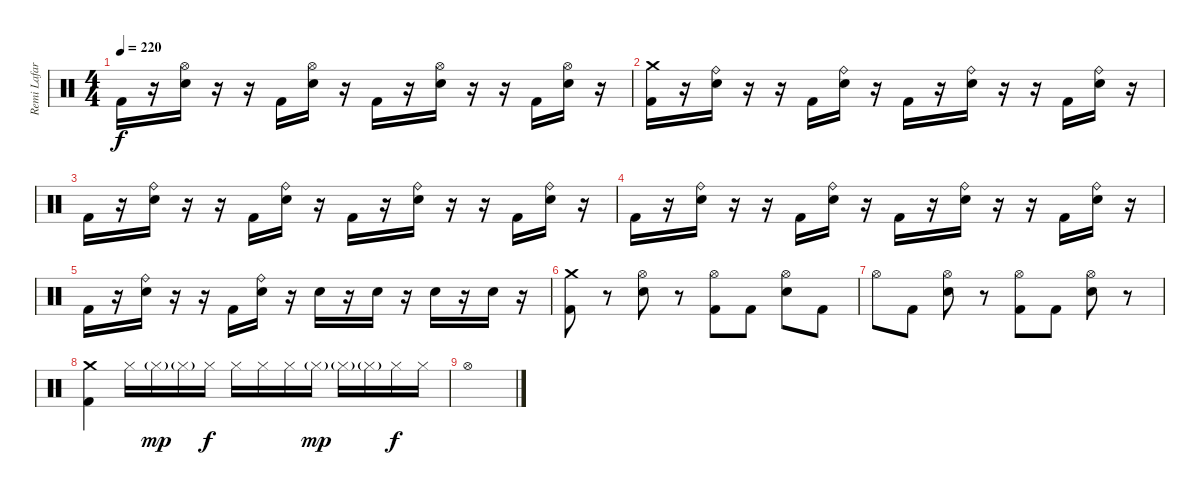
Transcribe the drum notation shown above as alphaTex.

\track ("Remi Lafargue " "Remi Lafar") {instrument percussion}
\staff {score}
\articulation defaults
\ts (4 4)
\tempo 220
\clef neutral
\ks c "Kick (hit) 2".16{dy f}
r.16 ("Hi-Hat (open)" "Snare (hit) 2").16 r.16 r.16 "Kick (hit) 2".16 ("Hi-Hat (open)" "Snare (hit) 2").16 r.16 "Kick (hit) 2".16 r.16 ("Hi-Hat (open)" "Snare (hit) 2").16 r.16 r.16 "Kick (hit) 2".16 ("Hi-Hat (open)" "Snare (hit) 2").16 r.16 |
("Crash medium (hit)" "Kick (hit) 2").16 r.16 ("Ride (bell)" "Snare (hit) 2").16 r.16 r.16 "Kick (hit) 2".16 ("Ride (bell)" "Snare (hit) 2").16 r.16 "Kick (hit) 2".16 r.16 ("Ride (bell)" "Snare (hit) 2").16 r.16 r.16 "Kick (hit) 2".16 ("Ride (bell)" "Snare (hit) 2").16 r.16 |
"Kick (hit) 2".16 r.16 ("Ride (bell)" "Snare (hit) 2").16 r.16 r.16 "Kick (hit) 2".16 ("Ride (bell)" "Snare (hit) 2").16 r.16 "Kick (hit) 2".16 r.16 ("Ride (bell)" "Snare (hit) 2").16 r.16 r.16 "Kick (hit) 2".16 ("Ride (bell)" "Snare (hit) 2").16 r.16 |
"Kick (hit) 2".16 r.16 ("Ride (bell)" "Snare (hit) 2").16 r.16 r.16 "Kick (hit) 2".16 ("Ride (bell)" "Snare (hit) 2").16 r.16 "Kick (hit) 2".16 r.16 ("Ride (bell)" "Snare (hit) 2").16 r.16 r.16 "Kick (hit) 2".16 ("Ride (bell)" "Snare (hit) 2").16 r.16 |
"Kick (hit) 2".16 r.16 ("Ride (bell)" "Snare (hit) 2").16 r.16 r.16 "Kick (hit) 2".16 ("Ride (bell)" "Snare (hit) 2").16 r.16 "Snare (hit) 2".16 r.16 "Snare (hit) 2".16 r.16 "Snare (hit) 2".16 r.16 "Snare (hit) 2".16 r.16 |
("Crash medium (hit)" "Kick (hit) 2").8 r.8 ("Hi-Hat (open)" "Snare (hit) 2").8 r.8 ("Hi-Hat (open)" "Kick (hit) 2").8 "Kick (hit) 2".8 ("Hi-Hat (open)" "Snare (hit) 2").8 "Kick (hit) 2".8 |
"Hi-Hat (open)".8 "Kick (hit) 2".8 ("Hi-Hat (open)" "Snare (hit) 2").8 r.8 ("Hi-Hat (open)" "Kick (hit) 2").8 "Kick (hit) 2".8 ("Hi-Hat (open)" "Snare (hit) 2").8 r.8 |
("Crash medium (hit)" "Kick (hit) 2").4 "Hi-Hat (closed)".16 "Hi-Hat (closed)"{g}.16{dy mp} "Hi-Hat (closed)"{g}.16 "Hi-Hat (closed)".16{dy f} "Hi-Hat (closed)".16 "Hi-Hat (closed)".16 "Hi-Hat (closed)".16 "Hi-Hat (closed)"{g}.16{dy mp} "Hi-Hat (closed)"{g}.16 "Hi-Hat (closed)"{g}.16 "Hi-Hat (closed)".16{dy f} "Hi-Hat (closed)".16 |
"Hi-Hat (open)".1
